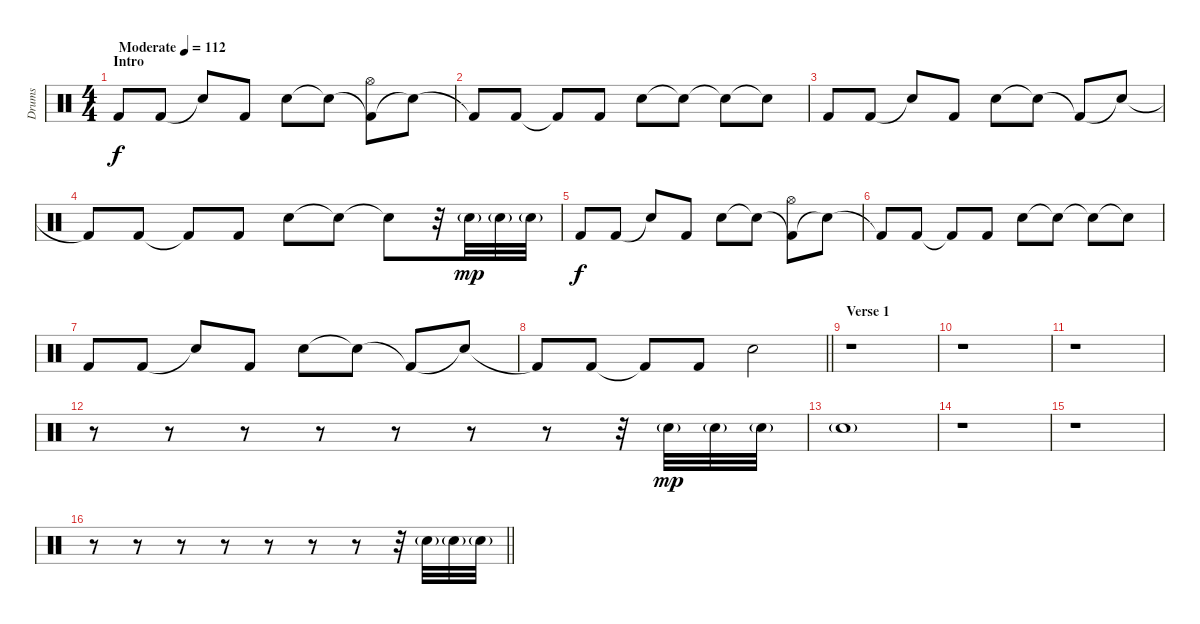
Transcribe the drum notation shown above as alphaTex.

\track ("Drums" "Drums") {instrument percussion}
\staff {score}
\articulation defaults
\ts (4 4)
\section ("" "Intro")
\tempo (112 "Moderate")
\clef neutral
\ks c "Kick (hit) 2".8{dy f} "Kick (hit) 2".8 "Snare (hit)"{t}.8 "Kick (hit) 2".8 "Electric Snare (hit)".8 "Snare (hit)"{t}.8
("Kick (hit) 2"{t} "Hi-Hat (open)").8 "Snare (hit)"{t}.8 |
"Kick (hit) 2"{t}.8 "Kick (hit) 2".8 "Kick (hit) 2"{t}.8 "Kick (hit) 2".8 "Electric Snare (hit)".8 "Snare (hit)"{t}.8 "Snare (hit)"{t}.8 "Snare (hit)"{t}.8 |
"Kick (hit) 2".8 "Kick (hit) 2".8 "Snare (hit)"{t}.8 "Kick (hit) 2".8 "Electric Snare (hit)".8 "Snare (hit)"{t}.8 "Kick (hit) 2"{t}.8 "Snare (hit)"{t}.8 |
"Kick (hit) 2"{t}.8 "Kick (hit) 2".8 "Kick (hit) 2"{t}.8 "Kick (hit) 2".8 "Electric Snare (hit)".8 "Snare (hit)"{t}.8 "Snare (hit)"{t}.8 r.32 "Electric Snare (hit)"{g}.32{dy mp} "Electric Snare (hit)"{g}.32 "Electric Snare (hit)"{g}.32 |
"Kick (hit) 2".8{dy f} "Kick (hit) 2".8 "Snare (hit)"{t}.8 "Kick (hit) 2".8 "Electric Snare (hit)".8 "Snare (hit)"{t}.8 ("Kick (hit) 2"{t} "Hi-Hat (open)").8 "Snare (hit)"{t}.8 |
"Kick (hit) 2"{t}.8 "Kick (hit) 2".8 "Kick (hit) 2"{t}.8 "Kick (hit) 2".8 "Electric Snare (hit)".8 "Snare (hit)"{t}.8 "Snare (hit)"{t}.8 "Snare (hit)"{t}.8 |
"Kick (hit) 2".8 "Kick (hit) 2".8 "Snare (hit)"{t}.8 "Kick (hit) 2".8 "Electric Snare (hit)".8 "Snare (hit)"{t}.8 "Kick (hit) 2"{t}.8 "Snare (hit)"{t}.8 |
\barLineRight lightlight "Kick (hit) 2"{t}.8 "Kick (hit) 2".8 "Kick (hit) 2"{t}.8 "Kick (hit) 2".8 "Electric Snare (hit)".2
|
\section ("" "Verse 1")
r.1 |
r.1 |
r.1 |
r.8 r.8 r.8 r.8 r.8 r.8 r.8 r.32 "Electric Snare (hit)"{g}.32{dy mp} "Electric Snare (hit)"{g}.32 "Electric Snare (hit)"{g}.32 |
"Electric Snare (hit)"{g}.1 |
r.1 |
r.1 |
\barLineRight lightlight
r.8 r.8 r.8 r.8 r.8 r.8 r.8 r.32 "Electric Snare (hit)"{g}.32 "Electric Snare (hit)"{g}.32 "Electric Snare (hit)"{g}.32
